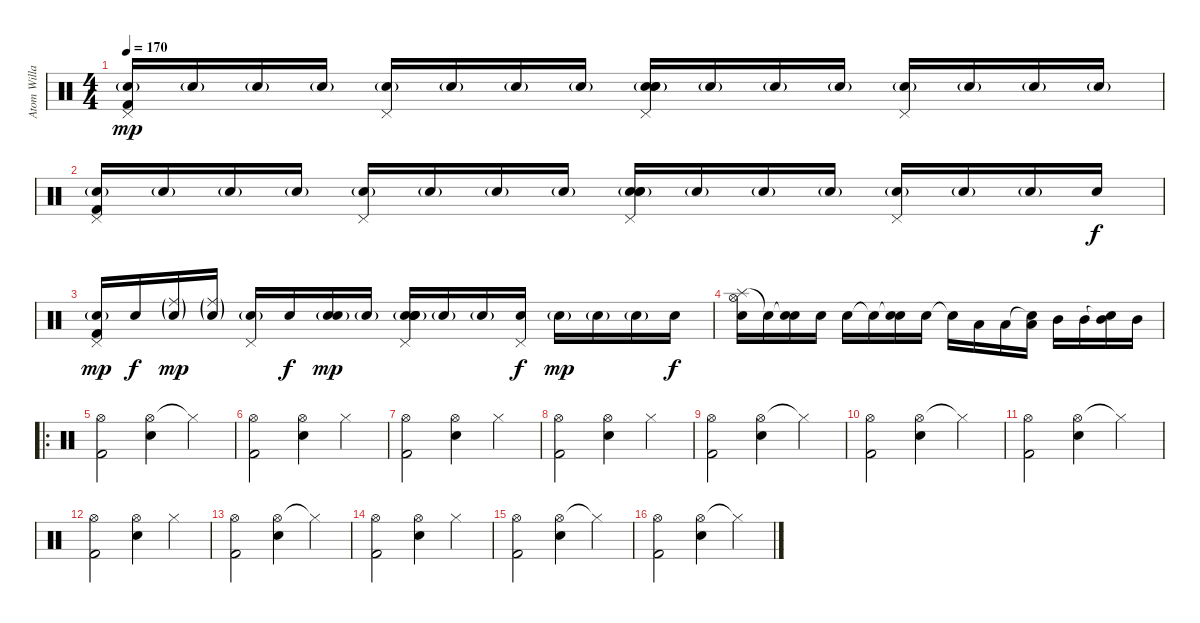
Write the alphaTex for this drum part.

\track ("Atom Willard" "Atom Willa") {instrument percussion}
\staff {score}
\articulation defaults
\ts (4 4)
\tempo 170
\clef neutral
\ks c
("Pedal Hi-Hat (hit)" "Electric Snare (hit)"{g} "Kick (hit) 2").16{dy mp volume 6} "Electric Snare (hit)"{g}.16 "Electric Snare (hit)"{g}.16 "Electric Snare (hit)"{g}.16 ("Pedal Hi-Hat (hit)" "Electric Snare (hit)"{g}).16 "Electric Snare (hit)"{g}.16 "Electric Snare (hit)"{g}.16 "Electric Snare (hit)"{g}.16 ("Pedal Hi-Hat (hit)" "Electric Snare (hit)"{g} "Electric Snare (hit)" "Snare (hit) 2").16 "Electric Snare (hit)"{g}.16 "Electric Snare (hit)"{g}.16 "Electric Snare (hit)"{g}.16 ("Pedal Hi-Hat (hit)" "Electric Snare (hit)"{g}).16 "Electric Snare (hit)"{g}.16 "Electric Snare (hit)"{g}.16 "Electric Snare (hit)"{g}.16 |
("Pedal Hi-Hat (hit)" "Electric Snare (hit)"{g} "Kick (hit) 2").16{volume 14} "Electric Snare (hit)"{g}.16 "Electric Snare (hit)"{g}.16 "Electric Snare (hit)"{g}.16 ("Pedal Hi-Hat (hit)" "Electric Snare (hit)"{g}).16 "Electric Snare (hit)"{g}.16 "Electric Snare (hit)"{g}.16 "Electric Snare (hit)"{g}.16 ("Pedal Hi-Hat (hit)" "Electric Snare (hit)"{g} "Electric Snare (hit)" "Snare (hit) 2").16 "Electric Snare (hit)"{g}.16 "Electric Snare (hit)"{g}.16 "Electric Snare (hit)"{g}.16 ("Pedal Hi-Hat (hit)" "Electric Snare (hit)"{g}).16 "Electric Snare (hit)"{g}.16 "Electric Snare (hit)"{g}.16 "Electric Snare (hit)".16{dy f} |
("Pedal Hi-Hat (hit)" "Electric Snare (hit)"{g} "Kick (hit) 2").16{dy mp volume 13} "Electric Snare (hit)".16{dy f} ("Ride (middle)"{g} "Electric Snare (hit)"{g}).16{dy mp} ("Ride (middle)"{g} "Electric Snare (hit)"{g}).16 ("Pedal Hi-Hat (hit)" "Electric Snare (hit)"{g}).16 "Electric Snare (hit)".16{dy f} ("Snare (hit)"{g} "Electric Snare (hit)"{g}).16{dy mp} "Electric Snare (hit)"{g}.16 ("Pedal Hi-Hat (hit)" "Snare (hit)"{g} "Electric Snare (hit)"{g} "Electric Snare (hit)" "Snare (hit) 2").16 "Electric Snare (hit)"{g}.16 "Electric Snare (hit)"{g}.16 ("Pedal Hi-Hat (hit)" "Electric Snare (hit)").16{dy f} "Electric Snare (hit)"{g}.16{dy mp} "Electric Snare (hit)"{g}.16 "Electric Snare (hit)"{g}.16 "Electric Snare (hit)".16{dy f} |
("Splash (hit)" "Hi-Hat (open)" "Electric Snare (hit)").16 "Electric Snare (hit)"{t}.16 ("Snare (hit)"{t} "Electric Snare (hit)").16 "Electric Snare (hit)".16 "Electric Snare (hit)".16 "Electric Snare (hit)"{t}.16 ("Snare (hit)"{t} "Electric Snare (hit)").16 "Electric Snare (hit)".16 "Snare (hit)"{t}.16 "Low Tom (hit)".16 "Low Tom (hit)".16 ("Snare (hit)"{t} "Low Tom (hit)").16 "Mid Tom (hit)".16 "Mid Tom (hit)".16 ("Snare (hit)"{t} "Mid Tom (hit)").16 "Mid Tom (hit)".16 |
\ro
("Hi-Hat (open)" "Kick (hit) 2").2 ("Hi-Hat (open)" "Electric Snare (hit)").4 "Hi-Hat (closed)"{t}.4 |
("Hi-Hat (open)" "Kick (hit) 2").2 ("Hi-Hat (open)" "Electric Snare (hit)").4 "Hi-Hat (closed)".4 |
("Hi-Hat (open)" "Kick (hit) 2").2 ("Hi-Hat (open)" "Electric Snare (hit)").4 "Hi-Hat (closed)".4 |
("Hi-Hat (open)" "Kick (hit) 2").2 ("Hi-Hat (open)" "Electric Snare (hit)").4 "Hi-Hat (closed)".4 |
("Hi-Hat (open)" "Kick (hit) 2").2 ("Hi-Hat (open)" "Electric Snare (hit)").4 "Hi-Hat (closed)"{t}.4 |
("Hi-Hat (open)" "Kick (hit) 2").2 ("Hi-Hat (open)" "Electric Snare (hit)").4 "Hi-Hat (closed)"{t}.4 |
("Hi-Hat (open)" "Kick (hit) 2").2 ("Hi-Hat (open)" "Electric Snare (hit)").4 "Hi-Hat (closed)"{t}.4 |
("Hi-Hat (open)" "Kick (hit) 2").2 ("Hi-Hat (open)" "Electric Snare (hit)").4 "Hi-Hat (closed)".4 |
("Hi-Hat (open)" "Kick (hit) 2").2 ("Hi-Hat (open)" "Electric Snare (hit)").4 "Hi-Hat (closed)"{t}.4 |
("Hi-Hat (open)" "Kick (hit) 2").2 ("Hi-Hat (open)" "Electric Snare (hit)").4 "Hi-Hat (closed)".4 |
("Hi-Hat (open)" "Kick (hit) 2").2 ("Hi-Hat (open)" "Electric Snare (hit)").4 "Hi-Hat (closed)"{t}.4 |
("Hi-Hat (open)" "Kick (hit) 2").2 ("Hi-Hat (open)" "Electric Snare (hit)").4 "Hi-Hat (closed)"{t}.4
